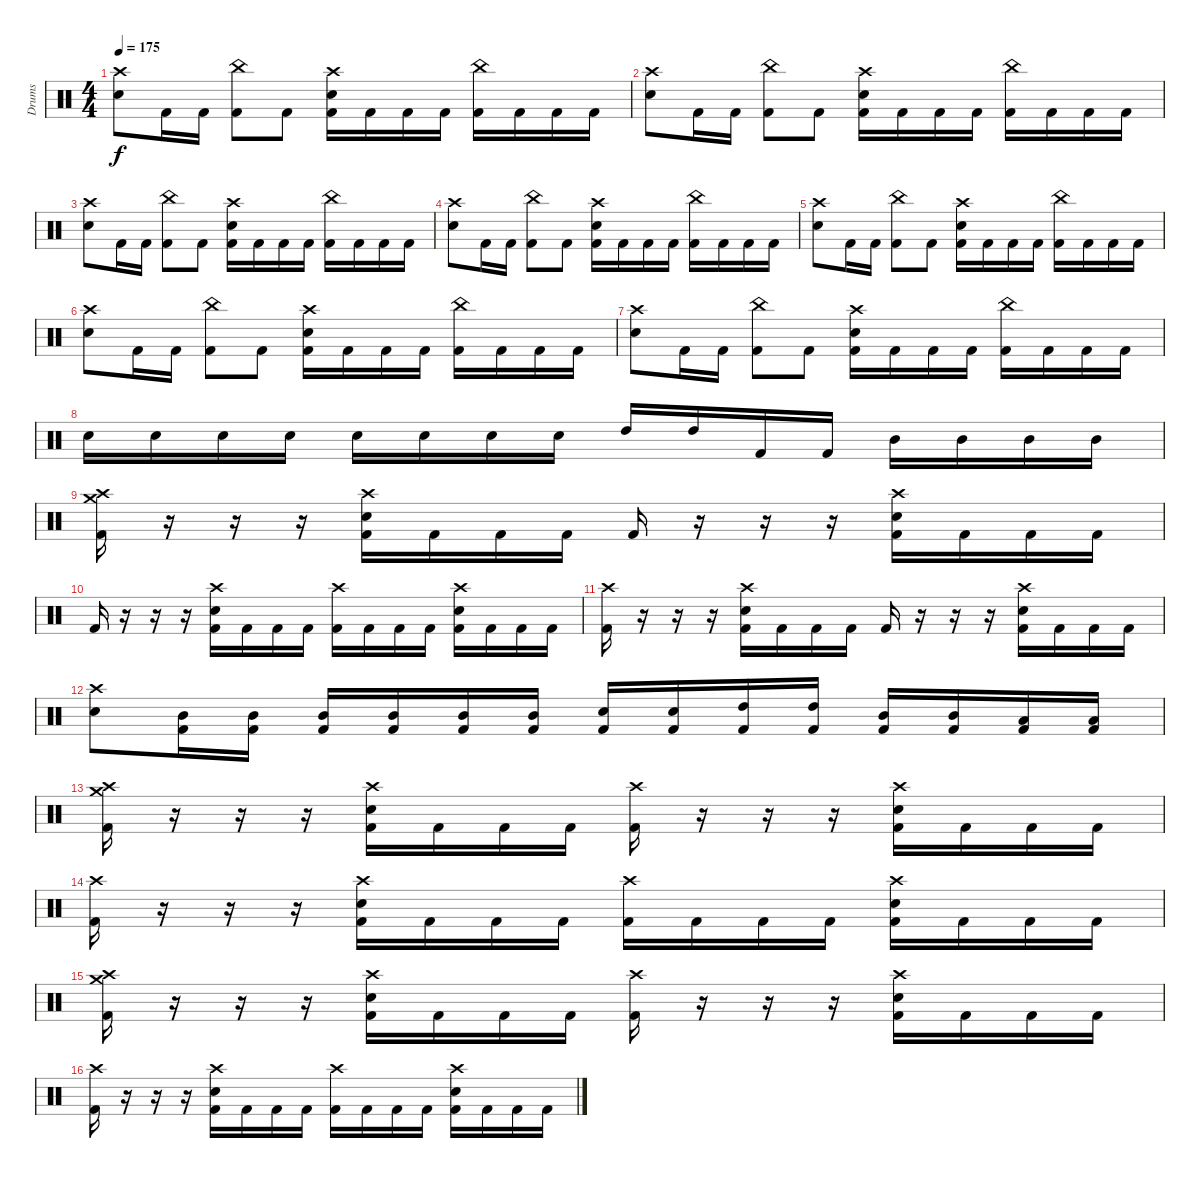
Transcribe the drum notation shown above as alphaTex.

\track ("Drums" "Drums") {instrument percussion}
\staff {score}
\articulation defaults
\ts (4 4)
\tempo 175
\clef neutral
\ks c
("Crash high (hit)" "Snare (hit) 2").8{dy f} "Kick (hit) 2".16 "Kick (hit) 2".16 ("China (hit)" "Kick (hit) 2").8 "Kick (hit) 2".8 ("Crash high (hit)" "Snare (hit) 2" "Kick (hit) 2").16 "Kick (hit) 2".16 "Kick (hit) 2".16 "Kick (hit) 2".16 ("China (hit)" "Kick (hit) 2").16 "Kick (hit) 2".16 "Kick (hit) 2".16 "Kick (hit) 2".16 |
("Crash high (hit)" "Snare (hit) 2").8 "Kick (hit) 2".16 "Kick (hit) 2".16 ("China (hit)" "Kick (hit) 2").8 "Kick (hit) 2".8 ("Crash high (hit)" "Snare (hit) 2" "Kick (hit) 2").16 "Kick (hit) 2".16 "Kick (hit) 2".16 "Kick (hit) 2".16 ("China (hit)" "Kick (hit) 2").16 "Kick (hit) 2".16 "Kick (hit) 2".16 "Kick (hit) 2".16 |
("Crash high (hit)" "Snare (hit) 2").8 "Kick (hit) 2".16 "Kick (hit) 2".16 ("China (hit)" "Kick (hit) 2").8 "Kick (hit) 2".8 ("Crash high (hit)" "Snare (hit) 2" "Kick (hit) 2").16 "Kick (hit) 2".16 "Kick (hit) 2".16 "Kick (hit) 2".16 ("China (hit)" "Kick (hit) 2").16 "Kick (hit) 2".16 "Kick (hit) 2".16 "Kick (hit) 2".16 |
("Crash high (hit)" "Snare (hit) 2").8 "Kick (hit) 2".16 "Kick (hit) 2".16 ("China (hit)" "Kick (hit) 2").8 "Kick (hit) 2".8 ("Crash high (hit)" "Snare (hit) 2" "Kick (hit) 2").16 "Kick (hit) 2".16 "Kick (hit) 2".16 "Kick (hit) 2".16 ("China (hit)" "Kick (hit) 2").16 "Kick (hit) 2".16 "Kick (hit) 2".16 "Kick (hit) 2".16 |
("Crash high (hit)" "Snare (hit) 2").8 "Kick (hit) 2".16 "Kick (hit) 2".16 ("China (hit)" "Kick (hit) 2").8 "Kick (hit) 2".8 ("Crash high (hit)" "Snare (hit) 2" "Kick (hit) 2").16 "Kick (hit) 2".16 "Kick (hit) 2".16 "Kick (hit) 2".16 ("China (hit)" "Kick (hit) 2").16 "Kick (hit) 2".16 "Kick (hit) 2".16 "Kick (hit) 2".16 |
("Crash high (hit)" "Snare (hit) 2").8 "Kick (hit) 2".16 "Kick (hit) 2".16 ("China (hit)" "Kick (hit) 2").8 "Kick (hit) 2".8 ("Crash high (hit)" "Snare (hit) 2" "Kick (hit) 2").16 "Kick (hit) 2".16 "Kick (hit) 2".16 "Kick (hit) 2".16 ("China (hit)" "Kick (hit) 2").16 "Kick (hit) 2".16 "Kick (hit) 2".16 "Kick (hit) 2".16 |
("Crash high (hit)" "Snare (hit) 2").8 "Kick (hit) 2".16 "Kick (hit) 2".16 ("China (hit)" "Kick (hit) 2").8 "Kick (hit) 2".8 ("Crash high (hit)" "Snare (hit) 2" "Kick (hit) 2").16 "Kick (hit) 2".16 "Kick (hit) 2".16 "Kick (hit) 2".16 ("China (hit)" "Kick (hit) 2").16 "Kick (hit) 2".16 "Kick (hit) 2".16 "Kick (hit) 2".16 |
"Snare (hit) 2".16 "Snare (hit) 2".16 "Snare (hit) 2".16 "Snare (hit) 2".16 "Snare (hit) 2".16 "Snare (hit) 2".16 "Snare (hit) 2".16 "Snare (hit) 2".16 "High Tom (hit)".16 "High Tom (hit)".16 "Kick (hit) 2".16 "Kick (hit) 2".16 "Mid Tom (hit)".16 "Mid Tom (hit)".16 "Mid Tom (hit)".16 "Mid Tom (hit)".16 |
("Crash medium (hit)" "Crash high (hit)" "Kick (hit) 2").16 r.16 r.16 r.16 ("Crash high (hit)" "Snare (hit) 2" "Kick (hit) 2").16 "Kick (hit) 2".16 "Kick (hit) 2".16 "Kick (hit) 2".16 "Kick (hit) 2".16 r.16 r.16 r.16 ("Crash high (hit)" "Snare (hit) 2" "Kick (hit) 2").16 "Kick (hit) 2".16 "Kick (hit) 2".16 "Kick (hit) 2".16 |
"Kick (hit) 2".16 r.16 r.16 r.16 ("Crash high (hit)" "Snare (hit) 2" "Kick (hit) 2").16 "Kick (hit) 2".16 "Kick (hit) 2".16 "Kick (hit) 2".16 ("Crash high (hit)" "Kick (hit) 2").16 "Kick (hit) 2".16 "Kick (hit) 2".16 "Kick (hit) 2".16 ("Crash high (hit)" "Snare (hit) 2" "Kick (hit) 2").16 "Kick (hit) 2".16 "Kick (hit) 2".16 "Kick (hit) 2".16 |
("Crash high (hit)" "Kick (hit) 2").16 r.16 r.16 r.16 ("Crash high (hit)" "Snare (hit) 2" "Kick (hit) 2").16 "Kick (hit) 2".16 "Kick (hit) 2".16 "Kick (hit) 2".16 "Kick (hit) 2".16 r.16 r.16 r.16 ("Crash high (hit)" "Snare (hit) 2" "Kick (hit) 2").16 "Kick (hit) 2".16 "Kick (hit) 2".16 "Kick (hit) 2".16 |
("Crash high (hit)" "Snare (hit) 2").8 ("Mid Tom (hit)" "Kick (hit) 2").16 ("Mid Tom (hit)" "Kick (hit) 2").16 ("Mid Tom (hit)" "Kick (hit) 2").16 ("Mid Tom (hit)" "Kick (hit) 2").16 ("Mid Tom (hit)" "Kick (hit) 2").16 ("Mid Tom (hit)" "Kick (hit) 2").16 ("Snare (hit) 2" "Kick (hit) 2").16 ("Snare (hit) 2" "Kick (hit) 2").16 ("High Tom (hit)" "Kick (hit) 2").16 ("High Tom (hit)" "Kick (hit) 2").16 ("Mid Tom (hit)" "Kick (hit) 2").16 ("Mid Tom (hit)" "Kick (hit) 2").16 ("Low Tom (hit)" "Kick (hit) 2").16 ("Low Tom (hit)" "Kick (hit) 2").16 |
("Crash medium (hit)" "Crash high (hit)" "Kick (hit) 2").16 r.16 r.16 r.16 ("Crash high (hit)" "Snare (hit) 2" "Kick (hit) 2").16 "Kick (hit) 2".16 "Kick (hit) 2".16 "Kick (hit) 2".16 ("Crash high (hit)" "Kick (hit) 2").16 r.16 r.16 r.16 ("Crash high (hit)" "Snare (hit) 2" "Kick (hit) 2").16 "Kick (hit) 2".16 "Kick (hit) 2".16 "Kick (hit) 2".16 |
("Crash high (hit)" "Kick (hit) 2").16 r.16 r.16 r.16 ("Crash high (hit)" "Snare (hit) 2" "Kick (hit) 2").16 "Kick (hit) 2".16 "Kick (hit) 2".16 "Kick (hit) 2".16 ("Crash high (hit)" "Kick (hit) 2").16 "Kick (hit) 2".16 "Kick (hit) 2".16 "Kick (hit) 2".16 ("Crash high (hit)" "Snare (hit) 2" "Kick (hit) 2").16 "Kick (hit) 2".16 "Kick (hit) 2".16 "Kick (hit) 2".16 |
("Crash medium (hit)" "Crash high (hit)" "Kick (hit) 2").16 r.16 r.16 r.16 ("Crash high (hit)" "Snare (hit) 2" "Kick (hit) 2").16 "Kick (hit) 2".16 "Kick (hit) 2".16 "Kick (hit) 2".16 ("Crash high (hit)" "Kick (hit) 2").16 r.16 r.16 r.16 ("Crash high (hit)" "Snare (hit) 2" "Kick (hit) 2").16 "Kick (hit) 2".16 "Kick (hit) 2".16 "Kick (hit) 2".16 |
("Crash high (hit)" "Kick (hit) 2").16 r.16 r.16 r.16 ("Crash high (hit)" "Snare (hit) 2" "Kick (hit) 2").16 "Kick (hit) 2".16 "Kick (hit) 2".16 "Kick (hit) 2".16 ("Crash high (hit)" "Kick (hit) 2").16 "Kick (hit) 2".16 "Kick (hit) 2".16 "Kick (hit) 2".16 ("Crash high (hit)" "Snare (hit) 2" "Kick (hit) 2").16 "Kick (hit) 2".16 "Kick (hit) 2".16 "Kick (hit) 2".16
